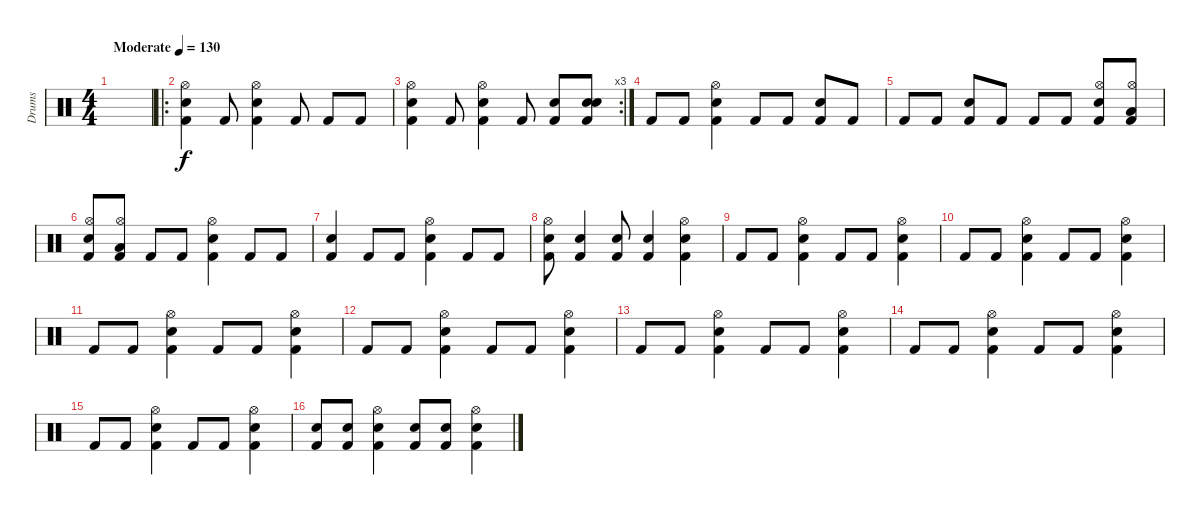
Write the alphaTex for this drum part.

\track ("Drums" "Drums") {instrument percussion}
\staff {score}
\articulation defaults
\ts (4 4)
\tempo (130 "Moderate")
\clef neutral
\ks c
|
\ro
("Kick (hit) 2" "Snare (hit) 2" "Hi-Hat (open)").4 "Kick (hit) 2".8 ("Kick (hit) 2" "Snare (hit) 2" "Hi-Hat (open)").4 "Kick (hit) 2".8 "Kick (hit) 2".8 "Kick (hit) 2".8 |
\rc 3
("Kick (hit) 2" "Snare (hit) 2" "Hi-Hat (open)").4 "Kick (hit) 2".8 ("Kick (hit) 2" "Snare (hit) 2" "Hi-Hat (open)").4 "Kick (hit) 2".8 ("Kick (hit) 2" "Electric Snare (hit)").8 ("Kick (hit) 2" "Snare (hit) 2" "Electric Snare (hit)").8 |
"Kick (hit) 2".8 "Kick (hit) 2".8 ("Kick (hit) 2" "Snare (hit) 2" "Hi-Hat (open)").4 "Kick (hit) 2".8 "Kick (hit) 2".8 ("Kick (hit) 2" "Snare (hit) 2").8 "Kick (hit) 2".8 |
"Kick (hit) 2".8 "Kick (hit) 2".8 ("Kick (hit) 2" "Snare (hit) 2").8 "Kick (hit) 2".8 "Kick (hit) 2".8 "Kick (hit) 2".8 ("Kick (hit) 2" "Hi-Hat (open)" "Electric Snare (hit)").8 ("Kick (hit) 2" "Hi-Hat (open)" "Low Floor Tom (hit)").8 |
("Kick (hit) 2" "Hi-Hat (open)" "Electric Snare (hit)").8 ("Kick (hit) 2" "Hi-Hat (open)" "Low Floor Tom (hit)").8 "Kick (hit) 2".8 "Kick (hit) 2".8 ("Kick (hit) 2" "Snare (hit) 2" "Hi-Hat (open)").4 "Kick (hit) 2".8 "Kick (hit) 2".8 |
("Kick (hit) 2" "Snare (hit) 2").4 "Kick (hit) 2".8 "Kick (hit) 2".8 ("Kick (hit) 2" "Snare (hit) 2" "Hi-Hat (open)").4 "Kick (hit) 2".8 "Kick (hit) 2".8 |
("Kick (hit) 2" "Snare (hit) 2" "Hi-Hat (open)").8 ("Kick (hit) 2" "Snare (hit) 2").4 ("Kick (hit) 2" "Snare (hit) 2").8 ("Kick (hit) 2" "Snare (hit) 2").4 ("Kick (hit) 2" "Snare (hit) 2" "Hi-Hat (open)").4 |
"Kick (hit) 2".8 "Kick (hit) 2".8 ("Kick (hit) 2" "Snare (hit) 2" "Hi-Hat (open)").4 "Kick (hit) 2".8 "Kick (hit) 2".8 ("Kick (hit) 2" "Snare (hit) 2" "Hi-Hat (open)").4 |
"Kick (hit) 2".8 "Kick (hit) 2".8 ("Kick (hit) 2" "Snare (hit) 2" "Hi-Hat (open)").4 "Kick (hit) 2".8 "Kick (hit) 2".8 ("Kick (hit) 2" "Snare (hit) 2" "Hi-Hat (open)").4 |
"Kick (hit) 2".8 "Kick (hit) 2".8 ("Kick (hit) 2" "Snare (hit) 2" "Hi-Hat (open)").4 "Kick (hit) 2".8 "Kick (hit) 2".8 ("Kick (hit) 2" "Snare (hit) 2" "Hi-Hat (open)").4 |
"Kick (hit) 2".8 "Kick (hit) 2".8 ("Kick (hit) 2" "Snare (hit) 2" "Hi-Hat (open)").4 "Kick (hit) 2".8 "Kick (hit) 2".8 ("Kick (hit) 2" "Snare (hit) 2" "Hi-Hat (open)").4 |
"Kick (hit) 2".8 "Kick (hit) 2".8 ("Kick (hit) 2" "Snare (hit) 2" "Hi-Hat (open)").4 "Kick (hit) 2".8 "Kick (hit) 2".8 ("Kick (hit) 2" "Snare (hit) 2" "Hi-Hat (open)").4 |
"Kick (hit) 2".8 "Kick (hit) 2".8 ("Kick (hit) 2" "Snare (hit) 2" "Hi-Hat (open)").4 "Kick (hit) 2".8 "Kick (hit) 2".8 ("Kick (hit) 2" "Snare (hit) 2" "Hi-Hat (open)").4 |
"Kick (hit) 2".8 "Kick (hit) 2".8 ("Kick (hit) 2" "Snare (hit) 2" "Hi-Hat (open)").4 "Kick (hit) 2".8 "Kick (hit) 2".8 ("Kick (hit) 2" "Snare (hit) 2" "Hi-Hat (open)").4 |
("Kick (hit) 2" "Snare (hit) 2").8 ("Kick (hit) 2" "Snare (hit) 2").8 ("Kick (hit) 2" "Snare (hit) 2" "Hi-Hat (open)").4 ("Kick (hit) 2" "Snare (hit) 2").8 ("Kick (hit) 2" "Snare (hit) 2").8 ("Kick (hit) 2" "Snare (hit) 2" "Hi-Hat (open)").4
